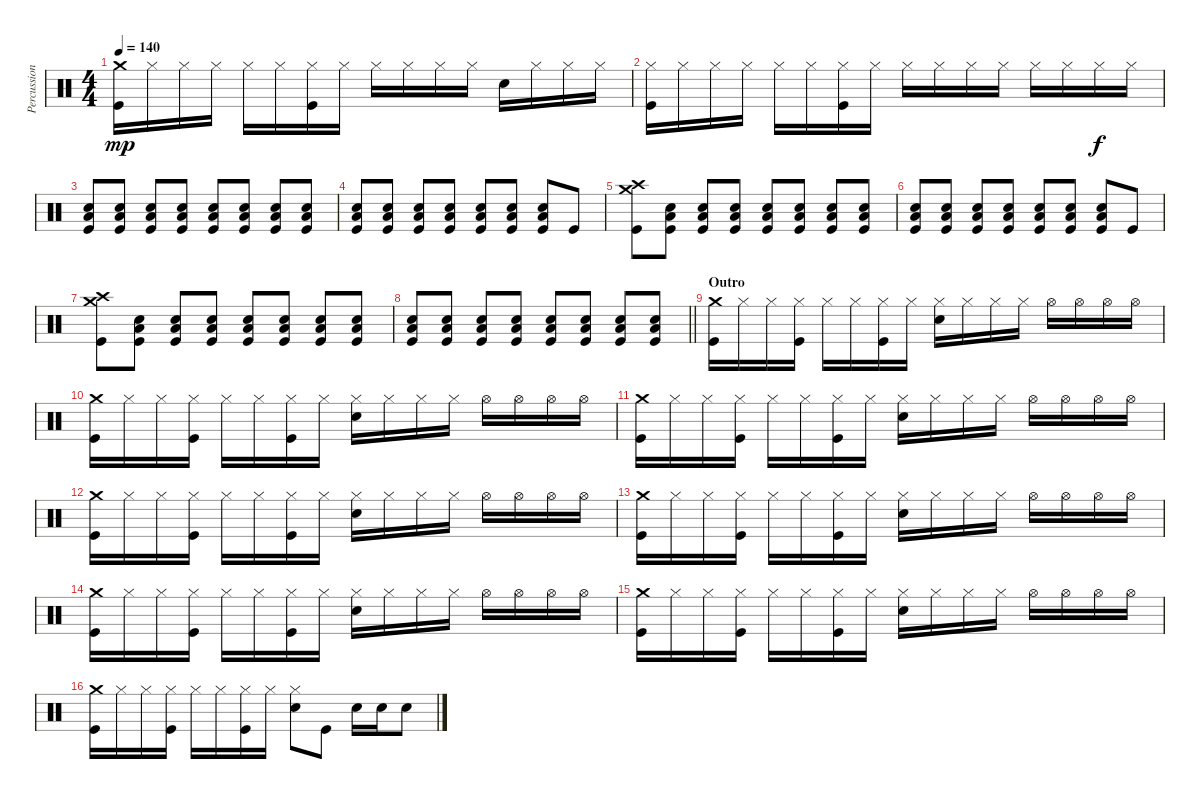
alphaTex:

\track ("Percussion" "Percussion") {instrument percussion}
\staff {score}
\articulation defaults
\ts (4 4)
\tempo 140
\clef neutral
\ks c
("Crash medium (hit)" "Kick (hit)").16{dy mp} "Hi-Hat (closed)".16 "Hi-Hat (closed)".16 "Hi-Hat (closed)".16 "Hi-Hat (closed)".16 "Hi-Hat (closed)".16 ("Hi-Hat (closed)" "Kick (hit)").16 "Hi-Hat (closed)".16 "Hi-Hat (closed)".16 "Hi-Hat (closed)".16 "Hi-Hat (closed)".16 "Hi-Hat (closed)".16 "Snare (hit) 2".16 "Hi-Hat (closed)".16 "Hi-Hat (closed)".16 "Hi-Hat (closed)".16 |
("Hi-Hat (closed)" "Kick (hit)").16 "Hi-Hat (closed)".16 "Hi-Hat (closed)".16 "Hi-Hat (closed)".16 "Hi-Hat (closed)".16 "Hi-Hat (closed)".16 ("Hi-Hat (closed)" "Kick (hit)").16 "Hi-Hat (closed)".16 "Hi-Hat (closed)".16 "Hi-Hat (closed)".16 "Hi-Hat (closed)".16 "Hi-Hat (closed)".16 "Hi-Hat (closed)".16 "Hi-Hat (closed)".16 "Hi-Hat (closed)".16{dy f} "Hi-Hat (closed)".16 |
("Snare (hit) 2" "Low Floor Tom (hit)" "Kick (hit)").8 ("Snare (hit) 2" "Low Floor Tom (hit)" "Kick (hit)").8 ("Snare (hit) 2" "Low Floor Tom (hit)" "Kick (hit)").8 ("Snare (hit) 2" "Low Floor Tom (hit)" "Kick (hit)").8 ("Snare (hit) 2" "Low Floor Tom (hit)" "Kick (hit)").8 ("Snare (hit) 2" "Low Floor Tom (hit)" "Kick (hit)").8 ("Snare (hit) 2" "Low Floor Tom (hit)" "Kick (hit)").8 ("Snare (hit) 2" "Low Floor Tom (hit)" "Kick (hit)").8 |
("Snare (hit) 2" "Low Floor Tom (hit)" "Kick (hit)").8 ("Snare (hit) 2" "Low Floor Tom (hit)" "Kick (hit)").8 ("Snare (hit) 2" "Low Floor Tom (hit)" "Kick (hit)").8 ("Snare (hit) 2" "Low Floor Tom (hit)" "Kick (hit)").8 ("Snare (hit) 2" "Low Floor Tom (hit)" "Kick (hit)").8 ("Snare (hit) 2" "Low Floor Tom (hit)" "Kick (hit)").8 ("Snare (hit) 2" "Low Floor Tom (hit)" "Kick (hit)").8 "Kick (hit)".8 |
("Crash medium (hit)" "Crash high (hit)" "Kick (hit)").8 ("Snare (hit) 2" "Low Floor Tom (hit)" "Kick (hit)").8 ("Snare (hit) 2" "Low Floor Tom (hit)" "Kick (hit)").8 ("Snare (hit) 2" "Low Floor Tom (hit)" "Kick (hit)").8 ("Snare (hit) 2" "Low Floor Tom (hit)" "Kick (hit)").8 ("Snare (hit) 2" "Low Floor Tom (hit)" "Kick (hit)").8 ("Snare (hit) 2" "Low Floor Tom (hit)" "Kick (hit)").8 ("Snare (hit) 2" "Low Floor Tom (hit)" "Kick (hit)").8 |
("Snare (hit) 2" "Low Floor Tom (hit)" "Kick (hit)").8 ("Snare (hit) 2" "Low Floor Tom (hit)" "Kick (hit)").8 ("Snare (hit) 2" "Low Floor Tom (hit)" "Kick (hit)").8 ("Snare (hit) 2" "Low Floor Tom (hit)" "Kick (hit)").8 ("Snare (hit) 2" "Low Floor Tom (hit)" "Kick (hit)").8 ("Snare (hit) 2" "Low Floor Tom (hit)" "Kick (hit)").8 ("Snare (hit) 2" "Low Floor Tom (hit)" "Kick (hit)").8 "Kick (hit)".8 |
("Crash medium (hit)" "Crash high (hit)" "Kick (hit)").8 ("Snare (hit) 2" "Low Floor Tom (hit)" "Kick (hit)").8 ("Snare (hit) 2" "Low Floor Tom (hit)" "Kick (hit)").8 ("Snare (hit) 2" "Low Floor Tom (hit)" "Kick (hit)").8 ("Snare (hit) 2" "Low Floor Tom (hit)" "Kick (hit)").8 ("Snare (hit) 2" "Low Floor Tom (hit)" "Kick (hit)").8 ("Snare (hit) 2" "Low Floor Tom (hit)" "Kick (hit)").8 ("Snare (hit) 2" "Low Floor Tom (hit)" "Kick (hit)").8 |
\barLineRight lightlight
("Snare (hit) 2" "Low Floor Tom (hit)" "Kick (hit)").8 ("Snare (hit) 2" "Low Floor Tom (hit)" "Kick (hit)").8 ("Snare (hit) 2" "Low Floor Tom (hit)" "Kick (hit)").8 ("Snare (hit) 2" "Low Floor Tom (hit)" "Kick (hit)").8 ("Snare (hit) 2" "Low Floor Tom (hit)" "Kick (hit)").8 ("Snare (hit) 2" "Low Floor Tom (hit)" "Kick (hit)").8 ("Snare (hit) 2" "Low Floor Tom (hit)" "Kick (hit)").8 ("Snare (hit) 2" "Low Floor Tom (hit)" "Kick (hit)").8 |
\section ("" "Outro")
("Crash medium (hit)" "Kick (hit)").16 "Hi-Hat (closed)".16 "Hi-Hat (closed)".16 ("Hi-Hat (closed)" "Kick (hit)").16 "Hi-Hat (closed)".16 "Hi-Hat (closed)".16 ("Hi-Hat (closed)" "Kick (hit)").16 "Hi-Hat (closed)".16 ("Hi-Hat (closed)" "Snare (hit) 2").16 "Hi-Hat (closed)".16 "Hi-Hat (closed)".16 "Hi-Hat (closed)".16 "Hi-Hat (open)".16 "Hi-Hat (open)".16 "Hi-Hat (open)".16 "Hi-Hat (open)".16 |
("Crash medium (hit)" "Kick (hit)").16 "Hi-Hat (closed)".16 "Hi-Hat (closed)".16 ("Hi-Hat (closed)" "Kick (hit)").16 "Hi-Hat (closed)".16 "Hi-Hat (closed)".16 ("Hi-Hat (closed)" "Kick (hit)").16 "Hi-Hat (closed)".16 ("Hi-Hat (closed)" "Snare (hit) 2").16 "Hi-Hat (closed)".16 "Hi-Hat (closed)".16 "Hi-Hat (closed)".16 "Hi-Hat (open)".16 "Hi-Hat (open)".16 "Hi-Hat (open)".16 "Hi-Hat (open)".16 |
("Crash medium (hit)" "Kick (hit)").16 "Hi-Hat (closed)".16 "Hi-Hat (closed)".16 ("Hi-Hat (closed)" "Kick (hit)").16 "Hi-Hat (closed)".16 "Hi-Hat (closed)".16 ("Hi-Hat (closed)" "Kick (hit)").16 "Hi-Hat (closed)".16 ("Hi-Hat (closed)" "Snare (hit) 2").16 "Hi-Hat (closed)".16 "Hi-Hat (closed)".16 "Hi-Hat (closed)".16 "Hi-Hat (open)".16 "Hi-Hat (open)".16 "Hi-Hat (open)".16 "Hi-Hat (open)".16 |
("Crash medium (hit)" "Kick (hit)").16 "Hi-Hat (closed)".16 "Hi-Hat (closed)".16 ("Hi-Hat (closed)" "Kick (hit)").16 "Hi-Hat (closed)".16 "Hi-Hat (closed)".16 ("Hi-Hat (closed)" "Kick (hit)").16 "Hi-Hat (closed)".16 ("Hi-Hat (closed)" "Snare (hit) 2").16 "Hi-Hat (closed)".16 "Hi-Hat (closed)".16 "Hi-Hat (closed)".16 "Hi-Hat (open)".16 "Hi-Hat (open)".16 "Hi-Hat (open)".16 "Hi-Hat (open)".16 |
("Crash medium (hit)" "Kick (hit)").16 "Hi-Hat (closed)".16 "Hi-Hat (closed)".16 ("Hi-Hat (closed)" "Kick (hit)").16 "Hi-Hat (closed)".16 "Hi-Hat (closed)".16 ("Hi-Hat (closed)" "Kick (hit)").16 "Hi-Hat (closed)".16 ("Hi-Hat (closed)" "Snare (hit) 2").16 "Hi-Hat (closed)".16 "Hi-Hat (closed)".16 "Hi-Hat (closed)".16 "Hi-Hat (open)".16 "Hi-Hat (open)".16 "Hi-Hat (open)".16 "Hi-Hat (open)".16 |
("Crash medium (hit)" "Kick (hit)").16 "Hi-Hat (closed)".16 "Hi-Hat (closed)".16 ("Hi-Hat (closed)" "Kick (hit)").16 "Hi-Hat (closed)".16 "Hi-Hat (closed)".16 ("Hi-Hat (closed)" "Kick (hit)").16 "Hi-Hat (closed)".16 ("Hi-Hat (closed)" "Snare (hit) 2").16 "Hi-Hat (closed)".16 "Hi-Hat (closed)".16 "Hi-Hat (closed)".16 "Hi-Hat (open)".16 "Hi-Hat (open)".16 "Hi-Hat (open)".16 "Hi-Hat (open)".16 |
("Crash medium (hit)" "Kick (hit)").16 "Hi-Hat (closed)".16 "Hi-Hat (closed)".16 ("Hi-Hat (closed)" "Kick (hit)").16 "Hi-Hat (closed)".16 "Hi-Hat (closed)".16 ("Hi-Hat (closed)" "Kick (hit)").16 "Hi-Hat (closed)".16 ("Hi-Hat (closed)" "Snare (hit) 2").16 "Hi-Hat (closed)".16 "Hi-Hat (closed)".16 "Hi-Hat (closed)".16 "Hi-Hat (open)".16 "Hi-Hat (open)".16 "Hi-Hat (open)".16 "Hi-Hat (open)".16 |
("Crash medium (hit)" "Kick (hit)").16 "Hi-Hat (closed)".16 "Hi-Hat (closed)".16 ("Hi-Hat (closed)" "Kick (hit)").16 "Hi-Hat (closed)".16 "Hi-Hat (closed)".16 ("Hi-Hat (closed)" "Kick (hit)").16 "Hi-Hat (closed)".16 ("Hi-Hat (closed)" "Snare (hit) 2").8 "Kick (hit)".8 "Snare (hit) 2".16 "Snare (hit) 2".16 "Snare (hit) 2".8
